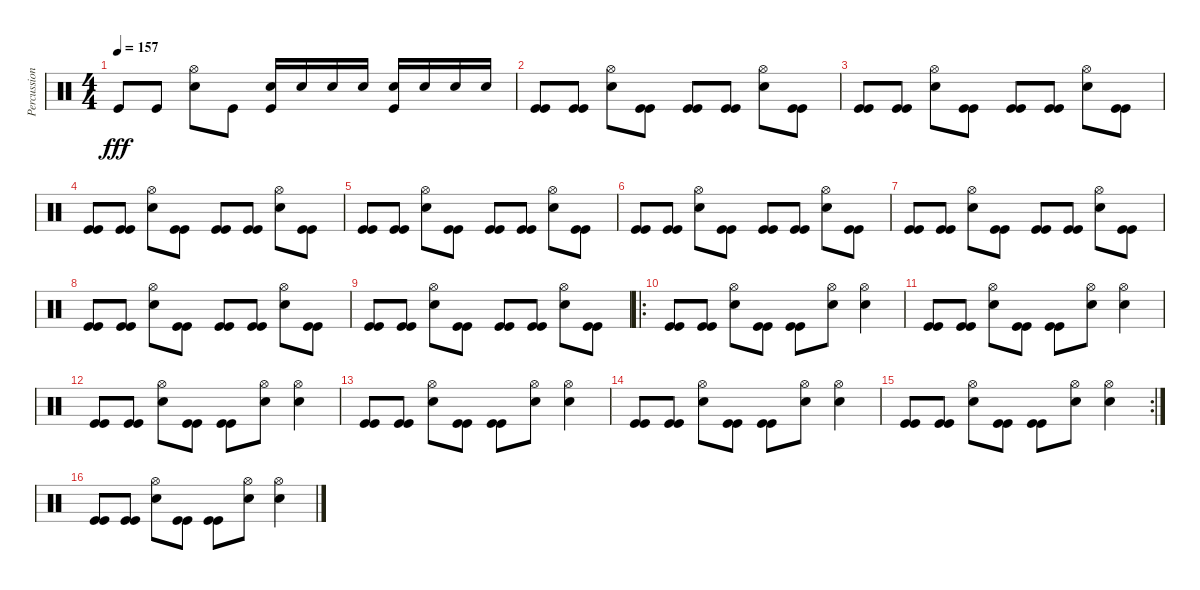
\track ("Percussions" "Percussion") {instrument percussion}
\staff {score}
\articulation defaults
\ts (4 4)
\tempo 157
\clef neutral
\ks c "Kick (hit)".8{dy fff} "Kick (hit)".8
("Snare (hit) 2" "Hi-Hat (open)").8 "Kick (hit)".8 ("Snare (hit) 2" "Kick (hit)").16 "Snare (hit) 2".16 "Snare (hit) 2".16 "Snare (hit) 2".16 ("Snare (hit) 2" "Kick (hit)").16 "Snare (hit) 2".16 "Snare (hit) 2".16 "Snare (hit) 2".16 |
("Kick (hit)" "Kick (hit)").8 ("Kick (hit)" "Kick (hit)").8 ("Snare (hit) 2" "Hi-Hat (open)").8 ("Kick (hit)" "Kick (hit)").8 ("Kick (hit)" "Kick (hit)").8 ("Kick (hit)" "Kick (hit)").8 ("Snare (hit) 2" "Hi-Hat (open)").8 ("Kick (hit)" "Kick (hit)").8 |
("Kick (hit)" "Kick (hit)").8 ("Kick (hit)" "Kick (hit)").8 ("Snare (hit) 2" "Hi-Hat (open)").8 ("Kick (hit)" "Kick (hit)").8 ("Kick (hit)" "Kick (hit)").8 ("Kick (hit)" "Kick (hit)").8 ("Snare (hit) 2" "Hi-Hat (open)").8 ("Kick (hit)" "Kick (hit)").8 |
("Kick (hit)" "Kick (hit)").8 ("Kick (hit)" "Kick (hit)").8 ("Snare (hit) 2" "Hi-Hat (open)").8 ("Kick (hit)" "Kick (hit)").8 ("Kick (hit)" "Kick (hit)").8 ("Kick (hit)" "Kick (hit)").8 ("Snare (hit) 2" "Hi-Hat (open)").8 ("Kick (hit)" "Kick (hit)").8 |
("Kick (hit)" "Kick (hit)").8 ("Kick (hit)" "Kick (hit)").8 ("Snare (hit) 2" "Hi-Hat (open)").8 ("Kick (hit)" "Kick (hit)").8 ("Kick (hit)" "Kick (hit)").8 ("Kick (hit)" "Kick (hit)").8 ("Snare (hit) 2" "Hi-Hat (open)").8 ("Kick (hit)" "Kick (hit)").8 |
("Kick (hit)" "Kick (hit)").8 ("Kick (hit)" "Kick (hit)").8 ("Snare (hit) 2" "Hi-Hat (open)").8 ("Kick (hit)" "Kick (hit)").8 ("Kick (hit)" "Kick (hit)").8 ("Kick (hit)" "Kick (hit)").8 ("Snare (hit) 2" "Hi-Hat (open)").8 ("Kick (hit)" "Kick (hit)").8 |
("Kick (hit)" "Kick (hit)").8 ("Kick (hit)" "Kick (hit)").8 ("Snare (hit) 2" "Hi-Hat (open)").8 ("Kick (hit)" "Kick (hit)").8 ("Kick (hit)" "Kick (hit)").8 ("Kick (hit)" "Kick (hit)").8 ("Snare (hit) 2" "Hi-Hat (open)").8 ("Kick (hit)" "Kick (hit)").8 |
("Kick (hit)" "Kick (hit)").8 ("Kick (hit)" "Kick (hit)").8 ("Snare (hit) 2" "Hi-Hat (open)").8 ("Kick (hit)" "Kick (hit)").8 ("Kick (hit)" "Kick (hit)").8 ("Kick (hit)" "Kick (hit)").8 ("Snare (hit) 2" "Hi-Hat (open)").8 ("Kick (hit)" "Kick (hit)").8 |
("Kick (hit)" "Kick (hit)").8 ("Kick (hit)" "Kick (hit)").8 ("Snare (hit) 2" "Hi-Hat (open)").8 ("Kick (hit)" "Kick (hit)").8 ("Kick (hit)" "Kick (hit)").8 ("Kick (hit)" "Kick (hit)").8 ("Snare (hit) 2" "Hi-Hat (open)").8 ("Kick (hit)" "Kick (hit)").8 |
\ro
("Kick (hit)" "Kick (hit)").8 ("Kick (hit)" "Kick (hit)").8 ("Snare (hit) 2" "Hi-Hat (open)").8 ("Kick (hit)" "Kick (hit)").8 ("Kick (hit)" "Kick (hit)").8 ("Snare (hit) 2" "Hi-Hat (open)").8 ("Snare (hit) 2" "Hi-Hat (open)").4 |
("Kick (hit)" "Kick (hit)").8 ("Kick (hit)" "Kick (hit)").8 ("Snare (hit) 2" "Hi-Hat (open)").8 ("Kick (hit)" "Kick (hit)").8 ("Kick (hit)" "Kick (hit)").8 ("Snare (hit) 2" "Hi-Hat (open)").8 ("Snare (hit) 2" "Hi-Hat (open)").4 |
("Kick (hit)" "Kick (hit)").8 ("Kick (hit)" "Kick (hit)").8 ("Snare (hit) 2" "Hi-Hat (open)").8 ("Kick (hit)" "Kick (hit)").8 ("Kick (hit)" "Kick (hit)").8 ("Snare (hit) 2" "Hi-Hat (open)").8 ("Snare (hit) 2" "Hi-Hat (open)").4 |
("Kick (hit)" "Kick (hit)").8 ("Kick (hit)" "Kick (hit)").8 ("Snare (hit) 2" "Hi-Hat (open)").8 ("Kick (hit)" "Kick (hit)").8 ("Kick (hit)" "Kick (hit)").8 ("Snare (hit) 2" "Hi-Hat (open)").8 ("Snare (hit) 2" "Hi-Hat (open)").4 |
("Kick (hit)" "Kick (hit)").8 ("Kick (hit)" "Kick (hit)").8 ("Snare (hit) 2" "Hi-Hat (open)").8 ("Kick (hit)" "Kick (hit)").8 ("Kick (hit)" "Kick (hit)").8 ("Snare (hit) 2" "Hi-Hat (open)").8 ("Snare (hit) 2" "Hi-Hat (open)").4 |
\rc 2
("Kick (hit)" "Kick (hit)").8 ("Kick (hit)" "Kick (hit)").8 ("Snare (hit) 2" "Hi-Hat (open)").8 ("Kick (hit)" "Kick (hit)").8 ("Kick (hit)" "Kick (hit)").8 ("Snare (hit) 2" "Hi-Hat (open)").8 ("Snare (hit) 2" "Hi-Hat (open)").4 |
("Kick (hit)" "Kick (hit)").8 ("Kick (hit)" "Kick (hit)").8 ("Snare (hit) 2" "Hi-Hat (open)").8 ("Kick (hit)" "Kick (hit)").8 ("Kick (hit)" "Kick (hit)").8 ("Snare (hit) 2" "Hi-Hat (open)").8 ("Snare (hit) 2" "Hi-Hat (open)").4
